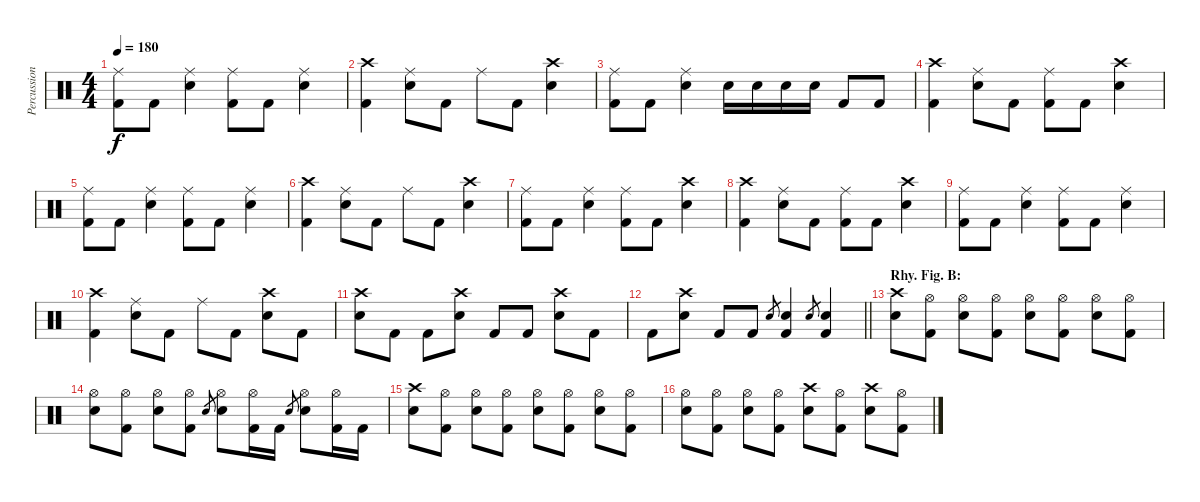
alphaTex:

\track ("Percussion" "Percussion") {instrument percussion}
\staff {score}
\articulation defaults
\ts (4 4)
\tempo 180
\clef neutral
\ks c
("Ride (middle)" "Kick (hit) 2").8{dy f} "Kick (hit) 2".8 ("Ride (middle)" "Snare (hit) 2").4 ("Ride (middle)" "Kick (hit) 2").8 "Kick (hit) 2".8 ("Ride (middle)" "Snare (hit) 2").4 |
("Crash high (hit)" "Kick (hit) 2").4 ("Ride (middle)" "Snare (hit) 2").8 "Kick (hit) 2".8 "Ride (middle)".8 "Kick (hit) 2".8 ("Crash high (hit)" "Snare (hit) 2").4 |
("Ride (middle)" "Kick (hit) 2").8 "Kick (hit) 2".8 ("Ride (middle)" "Snare (hit) 2").4 "Snare (hit) 2".16 "Snare (hit) 2".16 "Snare (hit) 2".16 "Snare (hit) 2".16 "Kick (hit) 2".8 "Kick (hit) 2".8 |
("Crash high (hit)" "Kick (hit) 2").4 ("Ride (middle)" "Snare (hit) 2").8 "Kick (hit) 2".8 ("Ride (middle)" "Kick (hit) 2").8 "Kick (hit) 2".8 ("Crash high (hit)" "Snare (hit) 2").4 |
("Ride (middle)" "Kick (hit) 2").8 "Kick (hit) 2".8 ("Ride (middle)" "Snare (hit) 2").4 ("Ride (middle)" "Kick (hit) 2").8 "Kick (hit) 2".8 ("Ride (middle)" "Snare (hit) 2").4 |
("Crash high (hit)" "Kick (hit) 2").4 ("Ride (middle)" "Snare (hit) 2").8 "Kick (hit) 2".8 "Ride (middle)".8 "Kick (hit) 2".8 ("Crash high (hit)" "Snare (hit) 2").4 |
("Ride (middle)" "Kick (hit) 2").8 "Kick (hit) 2".8 ("Ride (middle)" "Snare (hit) 2").4 ("Ride (middle)" "Kick (hit) 2").8 "Kick (hit) 2".8 ("Crash high (hit)" "Snare (hit) 2").4 |
("Crash high (hit)" "Kick (hit) 2").4 ("Ride (middle)" "Snare (hit) 2").8 "Kick (hit) 2".8 ("Ride (middle)" "Kick (hit) 2").8 "Kick (hit) 2".8 ("Crash high (hit)" "Snare (hit) 2").4 |
("Ride (middle)" "Kick (hit) 2").8 "Kick (hit) 2".8 ("Ride (middle)" "Snare (hit) 2").4 ("Ride (middle)" "Kick (hit) 2").8 "Kick (hit) 2".8 ("Ride (middle)" "Snare (hit) 2").4 |
("Crash high (hit)" "Kick (hit) 2").4 ("Ride (middle)" "Snare (hit) 2").8 "Kick (hit) 2".8 "Ride (middle)".8 "Kick (hit) 2".8 ("Crash high (hit)" "Snare (hit) 2").8 "Kick (hit) 2".8 |
("Crash high (hit)" "Snare (hit) 2").8 "Kick (hit) 2".8 "Kick (hit) 2".8 ("Crash high (hit)" "Snare (hit) 2").8 "Kick (hit) 2".8 "Kick (hit) 2".8 ("Crash high (hit)" "Snare (hit) 2").8 "Kick (hit) 2".8 |
\barLineRight lightlight "Kick (hit) 2".8
("Crash high (hit)" "Snare (hit) 2").8 "Kick (hit) 2".8 "Kick (hit) 2".8 "Snare (hit) 2".8{gr} ("Snare (hit) 2" "Kick (hit) 2").4 "Snare (hit) 2".8{gr} ("Snare (hit) 2" "Kick (hit) 2").4 |
\section ("" "Rhy. Fig. B:")
("Crash high (hit)" "Snare (hit) 2").8 ("Hi-Hat (open)" "Kick (hit) 2").8 ("Hi-Hat (open)" "Snare (hit) 2").8 ("Hi-Hat (open)" "Kick (hit) 2").8 ("Hi-Hat (open)" "Snare (hit) 2").8 ("Hi-Hat (open)" "Kick (hit) 2").8 ("Hi-Hat (open)" "Snare (hit) 2").8 ("Hi-Hat (open)" "Kick (hit) 2").8 |
("Hi-Hat (open)" "Snare (hit) 2").8 ("Hi-Hat (open)" "Kick (hit) 2").8 ("Hi-Hat (open)" "Snare (hit) 2").8 ("Hi-Hat (open)" "Kick (hit) 2").8 "Snare (hit) 2".8{gr} ("Hi-Hat (open)" "Snare (hit) 2").8 ("Hi-Hat (open)" "Kick (hit) 2").16 "Kick (hit) 2".16 "Snare (hit) 2".8{gr} ("Hi-Hat (open)" "Snare (hit) 2").8 ("Hi-Hat (open)" "Kick (hit) 2").16 "Kick (hit) 2".16 |
("Crash high (hit)" "Snare (hit) 2").8 ("Hi-Hat (open)" "Kick (hit) 2").8 ("Hi-Hat (open)" "Snare (hit) 2").8 ("Hi-Hat (open)" "Kick (hit) 2").8 ("Hi-Hat (open)" "Snare (hit) 2").8 ("Hi-Hat (open)" "Kick (hit) 2").8 ("Hi-Hat (open)" "Snare (hit) 2").8 ("Hi-Hat (open)" "Kick (hit) 2").8 |
("Hi-Hat (open)" "Snare (hit) 2").8 ("Hi-Hat (open)" "Kick (hit) 2").8 ("Hi-Hat (open)" "Snare (hit) 2").8 ("Hi-Hat (open)" "Kick (hit) 2").8 ("Crash high (hit)" "Snare (hit) 2").8 ("Hi-Hat (open)" "Kick (hit) 2").8 ("Crash high (hit)" "Snare (hit) 2").8 ("Hi-Hat (open)" "Kick (hit) 2").8
